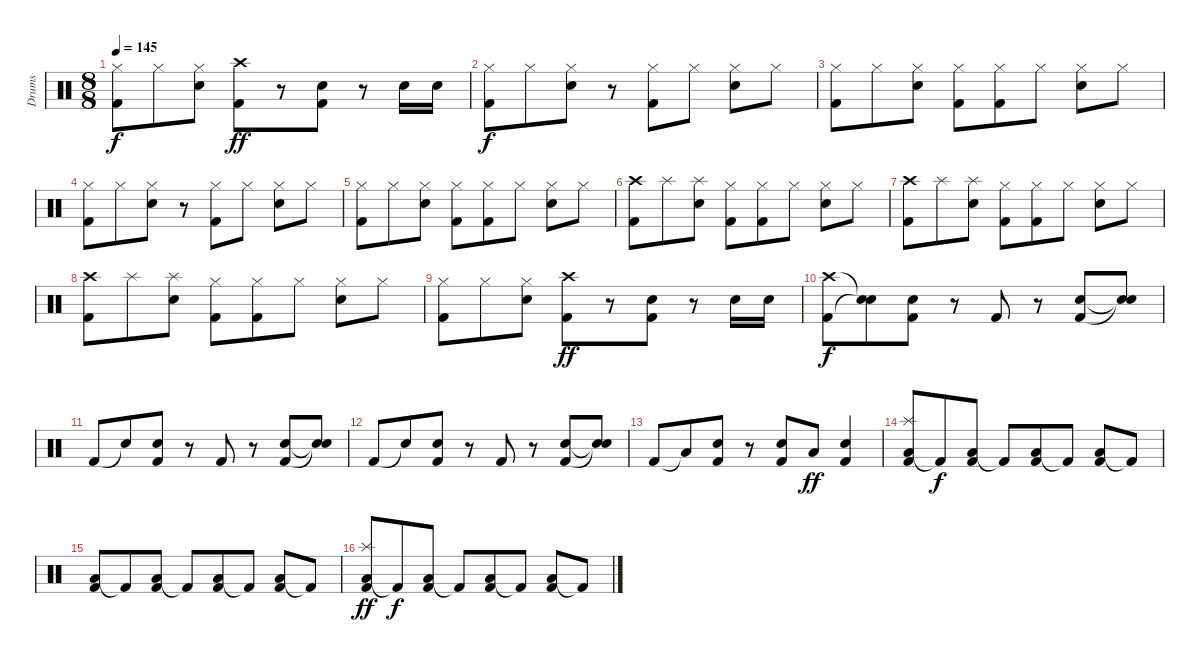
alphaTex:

\track ("Drums" "Drums") {instrument percussion}
\staff {score}
\articulation defaults
\ts (8 8)
\tempo 145
\clef neutral
\ks c
("Kick (hit) 2" "Hi-Hat (closed)").8{dy f} "Hi-Hat (closed)".8 ("Snare (hit) 2" "Hi-Hat (closed)").8 ("Kick (hit) 2" "Crash high (hit)").8{dy ff} r.8 ("Kick (hit) 2" "Snare (hit) 2").8 r.8 "Snare (hit) 2".16 "Snare (hit) 2".16 |
("Kick (hit) 2" "Hi-Hat (closed)").8{dy f} "Hi-Hat (closed)".8 ("Snare (hit) 2" "Hi-Hat (closed)").8 r.8 ("Kick (hit) 2" "Hi-Hat (closed)").8 "Hi-Hat (closed)".8 ("Snare (hit) 2" "Hi-Hat (closed)").8 "Hi-Hat (closed)".8 |
("Kick (hit) 2" "Hi-Hat (closed)").8 "Hi-Hat (closed)".8 ("Snare (hit) 2" "Hi-Hat (closed)").8 ("Kick (hit) 2" "Hi-Hat (closed)").8 ("Kick (hit) 2" "Hi-Hat (closed)").8 "Hi-Hat (closed)".8 ("Snare (hit) 2" "Hi-Hat (closed)").8 "Hi-Hat (closed)".8 |
("Kick (hit) 2" "Hi-Hat (closed)").8 "Hi-Hat (closed)".8 ("Snare (hit) 2" "Hi-Hat (closed)").8 r.8 ("Kick (hit) 2" "Hi-Hat (closed)").8 "Hi-Hat (closed)".8 ("Snare (hit) 2" "Hi-Hat (closed)").8 "Hi-Hat (closed)".8 |
("Kick (hit) 2" "Hi-Hat (closed)").8 "Hi-Hat (closed)".8 ("Snare (hit) 2" "Hi-Hat (closed)").8 ("Kick (hit) 2" "Hi-Hat (closed)").8 ("Kick (hit) 2" "Hi-Hat (closed)").8 "Hi-Hat (closed)".8 ("Snare (hit) 2" "Hi-Hat (closed)").8 "Hi-Hat (closed)".8 |
("Kick (hit) 2" "Crash high (hit)").8 "Splash (hit)".8 ("Snare (hit) 2" "Splash (hit)").8 ("Kick (hit) 2" "Hi-Hat (closed)").8 ("Kick (hit) 2" "Hi-Hat (closed)").8 "Hi-Hat (closed)".8 ("Snare (hit) 2" "Hi-Hat (closed)").8 "Hi-Hat (closed)".8 |
("Kick (hit) 2" "Crash high (hit)").8 "Splash (hit)".8 ("Snare (hit) 2" "Splash (hit)").8 ("Kick (hit) 2" "Hi-Hat (closed)").8 ("Kick (hit) 2" "Hi-Hat (closed)").8 "Hi-Hat (closed)".8 ("Snare (hit) 2" "Hi-Hat (closed)").8 "Hi-Hat (closed)".8 |
("Kick (hit) 2" "Crash high (hit)").8 "Splash (hit)".8 ("Snare (hit) 2" "Splash (hit)").8 ("Kick (hit) 2" "Hi-Hat (closed)").8 ("Kick (hit) 2" "Hi-Hat (closed)").8 "Hi-Hat (closed)".8 ("Snare (hit) 2" "Hi-Hat (closed)").8 "Hi-Hat (closed)".8 |
("Kick (hit) 2" "Hi-Hat (closed)").8 "Hi-Hat (closed)".8 ("Snare (hit) 2" "Hi-Hat (closed)").8 ("Kick (hit) 2" "Crash high (hit)").8{dy ff} r.8 ("Kick (hit) 2" "Snare (hit) 2").8 r.8 "Snare (hit) 2".16 "Snare (hit) 2".16 |
("Crash high (hit)" "Kick (hit) 2").8{dy f} ("Snare (hit)"{t} "Snare (hit)"{t}).8 ("Snare (hit) 2" "Kick (hit) 2").8 r.8 "Kick (hit) 2".8 r.8 ("Snare (hit) 2" "Kick (hit) 2").8 ("Snare (hit)"{t} "Snare (hit)"{t}).8 |
"Kick (hit) 2".8 "Snare (hit)"{t}.8 ("Snare (hit) 2" "Kick (hit) 2").8 r.8 "Kick (hit) 2".8 r.8 ("Snare (hit) 2" "Kick (hit) 2").8 ("Snare (hit)"{t} "Snare (hit)"{t}).8 |
"Kick (hit) 2".8 "Snare (hit)"{t}.8 ("Snare (hit) 2" "Kick (hit) 2").8 r.8 "Kick (hit) 2".8 r.8 ("Snare (hit) 2" "Kick (hit) 2").8 ("Snare (hit)"{t} "Snare (hit)"{t}).8 |
"Kick (hit) 2".8 "Low Floor Tom (hit)"{t}.8 ("Snare (hit) 2" "Kick (hit) 2").8 r.8 ("Snare (hit) 2" "Kick (hit) 2").8 "Low Floor Tom (hit)".8{dy ff} ("Snare (hit) 2" "Kick (hit) 2").4 |
("Low Floor Tom (hit)" "Splash (hit)" "Kick (hit) 2").8 "Kick (hit) 2"{t}.8{dy f} ("Low Floor Tom (hit)" "Kick (hit) 2").8 "Kick (hit) 2"{t}.8 ("Low Floor Tom (hit)" "Kick (hit) 2").8 "Kick (hit) 2"{t}.8 ("Low Floor Tom (hit)" "Kick (hit) 2").8 "Kick (hit) 2"{t}.8 |
("Low Floor Tom (hit)" "Kick (hit) 2").8 "Kick (hit) 2"{t}.8 ("Low Floor Tom (hit)" "Kick (hit) 2").8 "Kick (hit) 2"{t}.8 ("Low Floor Tom (hit)" "Kick (hit) 2").8 "Kick (hit) 2"{t}.8 ("Low Floor Tom (hit)" "Kick (hit) 2").8 "Kick (hit) 2"{t}.8 |
("Low Floor Tom (hit)" "Splash (hit)" "Kick (hit) 2").8{dy ff} "Kick (hit) 2"{t}.8{dy f} ("Low Floor Tom (hit)" "Kick (hit) 2").8 "Kick (hit) 2"{t}.8 ("Low Floor Tom (hit)" "Kick (hit) 2").8 "Kick (hit) 2"{t}.8 ("Low Floor Tom (hit)" "Kick (hit) 2").8 "Kick (hit) 2"{t}.8
